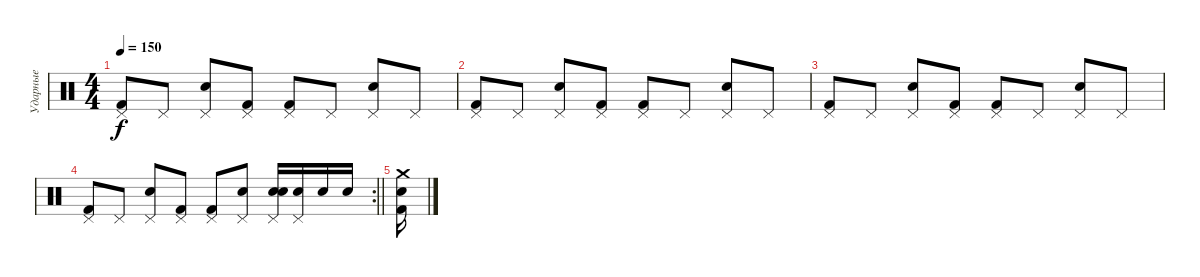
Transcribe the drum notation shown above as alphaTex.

\track ("Ударные" "Ударные") {instrument percussion}
\staff {score}
\articulation defaults
\ts (4 4)
\tempo 150
\clef neutral
\ks c
("Pedal Hi-Hat (hit)" "Kick (hit) 2").8{dy f} "Pedal Hi-Hat (hit)".8 ("Pedal Hi-Hat (hit)" "Electric Snare (hit)").8 ("Pedal Hi-Hat (hit)" "Kick (hit) 2").8 ("Pedal Hi-Hat (hit)" "Kick (hit) 2").8 "Pedal Hi-Hat (hit)".8 ("Pedal Hi-Hat (hit)" "Electric Snare (hit)").8 "Pedal Hi-Hat (hit)".8 |
("Pedal Hi-Hat (hit)" "Kick (hit) 2").8 "Pedal Hi-Hat (hit)".8 ("Pedal Hi-Hat (hit)" "Electric Snare (hit)").8 ("Pedal Hi-Hat (hit)" "Kick (hit) 2").8 ("Pedal Hi-Hat (hit)" "Kick (hit) 2").8 "Pedal Hi-Hat (hit)".8 ("Pedal Hi-Hat (hit)" "Electric Snare (hit)").8 "Pedal Hi-Hat (hit)".8 |
("Pedal Hi-Hat (hit)" "Kick (hit) 2").8 "Pedal Hi-Hat (hit)".8 ("Pedal Hi-Hat (hit)" "Electric Snare (hit)").8 ("Pedal Hi-Hat (hit)" "Kick (hit) 2").8 ("Pedal Hi-Hat (hit)" "Kick (hit) 2").8 "Pedal Hi-Hat (hit)".8 ("Pedal Hi-Hat (hit)" "Electric Snare (hit)").8 "Pedal Hi-Hat (hit)".8 |
\rc 2
\barLineRight lightlight
("Pedal Hi-Hat (hit)" "Kick (hit) 2").8 "Pedal Hi-Hat (hit)".8 ("Pedal Hi-Hat (hit)" "Electric Snare (hit)").8 ("Pedal Hi-Hat (hit)" "Kick (hit) 2").8 ("Pedal Hi-Hat (hit)" "Kick (hit) 2").8 ("Pedal Hi-Hat (hit)" "Electric Snare (hit)").8 ("Electric Snare (hit)" "Pedal Hi-Hat (hit)" "Electric Snare (hit)").16 ("Electric Snare (hit)" "Pedal Hi-Hat (hit)").16 "Electric Snare (hit)".16 "Electric Snare (hit)".16 |
("Kick (hit) 2" "Electric Snare (hit)" "Crash medium (hit)").16
